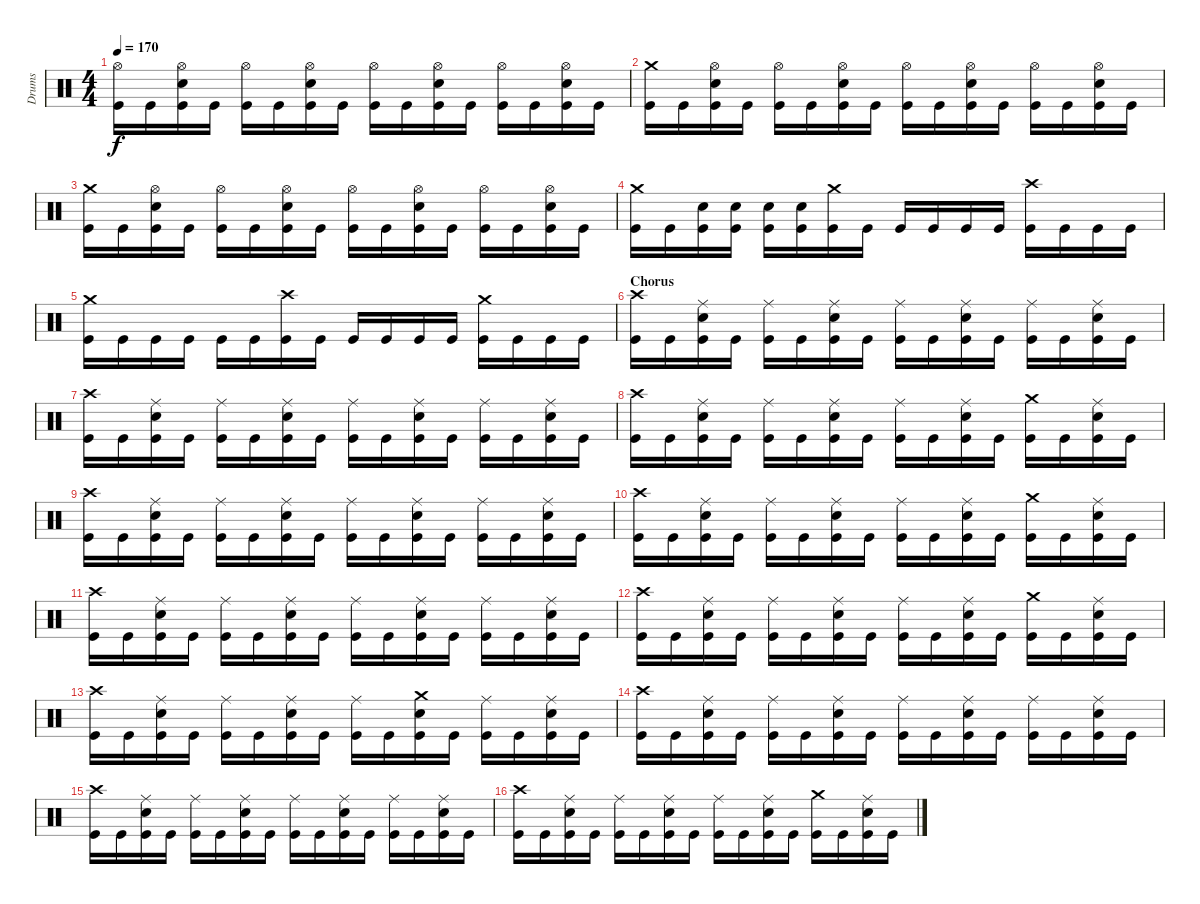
\track ("Drums" "Drums") {instrument percussion}
\staff {score}
\articulation defaults
\ts (4 4)
\tempo 170
\clef neutral
\ks c
("Hi-Hat (open)" "Kick (hit)").16{dy f} "Kick (hit)".16 ("Hi-Hat (open)" "Electric Snare (hit)" "Kick (hit)").16 "Kick (hit)".16 ("Hi-Hat (open)" "Kick (hit)").16 "Kick (hit)".16 ("Hi-Hat (open)" "Electric Snare (hit)" "Kick (hit)").16 "Kick (hit)".16 ("Hi-Hat (open)" "Kick (hit)").16 "Kick (hit)".16 ("Hi-Hat (open)" "Electric Snare (hit)" "Kick (hit)").16 "Kick (hit)".16 ("Hi-Hat (open)" "Kick (hit)").16 "Kick (hit)".16 ("Hi-Hat (open)" "Electric Snare (hit)" "Kick (hit)").16 "Kick (hit)".16 |
("Crash medium (hit)" "Kick (hit)").16 "Kick (hit)".16 ("Hi-Hat (open)" "Electric Snare (hit)" "Kick (hit)").16 "Kick (hit)".16 ("Hi-Hat (open)" "Kick (hit)").16 "Kick (hit)".16 ("Hi-Hat (open)" "Electric Snare (hit)" "Kick (hit)").16 "Kick (hit)".16 ("Hi-Hat (open)" "Kick (hit)").16 "Kick (hit)".16 ("Hi-Hat (open)" "Electric Snare (hit)" "Kick (hit)").16 "Kick (hit)".16 ("Hi-Hat (open)" "Kick (hit)").16 "Kick (hit)".16 ("Hi-Hat (open)" "Electric Snare (hit)" "Kick (hit)").16 "Kick (hit)".16 |
("Crash medium (hit)" "Kick (hit)").16 "Kick (hit)".16 ("Hi-Hat (open)" "Electric Snare (hit)" "Kick (hit)").16 "Kick (hit)".16 ("Hi-Hat (open)" "Kick (hit)").16 "Kick (hit)".16 ("Hi-Hat (open)" "Electric Snare (hit)" "Kick (hit)").16 "Kick (hit)".16 ("Hi-Hat (open)" "Kick (hit)").16 "Kick (hit)".16 ("Hi-Hat (open)" "Electric Snare (hit)" "Kick (hit)").16 "Kick (hit)".16 ("Hi-Hat (open)" "Kick (hit)").16 "Kick (hit)".16 ("Hi-Hat (open)" "Electric Snare (hit)" "Kick (hit)").16 "Kick (hit)".16 |
("Crash medium (hit)" "Kick (hit)").16 "Kick (hit)".16 ("Electric Snare (hit)" "Kick (hit)").16 ("Electric Snare (hit)" "Kick (hit)").16 ("Electric Snare (hit)" "Kick (hit)").16 ("Electric Snare (hit)" "Kick (hit)").16 ("Crash medium (hit)" "Kick (hit)").16 "Kick (hit)".16 "Kick (hit)".16 "Kick (hit)".16 "Kick (hit)".16 "Kick (hit)".16 ("Crash high (hit)" "Kick (hit)").16 "Kick (hit)".16 "Kick (hit)".16 "Kick (hit)".16 |
("Crash medium (hit)" "Kick (hit)").16 "Kick (hit)".16 "Kick (hit)".16 "Kick (hit)".16 "Kick (hit)".16 "Kick (hit)".16 ("Crash high (hit)" "Kick (hit)").16 "Kick (hit)".16 "Kick (hit)".16 "Kick (hit)".16 "Kick (hit)".16 "Kick (hit)".16 ("Crash medium (hit)" "Kick (hit)").16 "Kick (hit)".16 "Kick (hit)".16 "Kick (hit)".16 |
\section ("" "Chorus")
("Crash high (hit)" "Kick (hit)").16 "Kick (hit)".16 ("Ride (middle)" "Electric Snare (hit)" "Kick (hit)").16 "Kick (hit)".16 ("Ride (middle)" "Kick (hit)").16 "Kick (hit)".16 ("Ride (middle)" "Electric Snare (hit)" "Kick (hit)").16 "Kick (hit)".16 ("Ride (middle)" "Kick (hit)").16 "Kick (hit)".16 ("Ride (middle)" "Electric Snare (hit)" "Kick (hit)").16 "Kick (hit)".16 ("Ride (middle)" "Kick (hit)").16 "Kick (hit)".16 ("Ride (middle)" "Electric Snare (hit)" "Kick (hit)").16 "Kick (hit)".16 |
("Crash high (hit)" "Kick (hit)").16 "Kick (hit)".16 ("Ride (middle)" "Electric Snare (hit)" "Kick (hit)").16 "Kick (hit)".16 ("Ride (middle)" "Kick (hit)").16 "Kick (hit)".16 ("Ride (middle)" "Electric Snare (hit)" "Kick (hit)").16 "Kick (hit)".16 ("Ride (middle)" "Kick (hit)").16 "Kick (hit)".16 ("Ride (middle)" "Electric Snare (hit)" "Kick (hit)").16 "Kick (hit)".16 ("Ride (middle)" "Kick (hit)").16 "Kick (hit)".16 ("Ride (middle)" "Electric Snare (hit)" "Kick (hit)").16 "Kick (hit)".16 |
("Crash high (hit)" "Kick (hit)").16 "Kick (hit)".16 ("Ride (middle)" "Electric Snare (hit)" "Kick (hit)").16 "Kick (hit)".16 ("Ride (middle)" "Kick (hit)").16 "Kick (hit)".16 ("Ride (middle)" "Electric Snare (hit)" "Kick (hit)").16 "Kick (hit)".16 ("Ride (middle)" "Kick (hit)").16 "Kick (hit)".16 ("Ride (middle)" "Electric Snare (hit)" "Kick (hit)").16 "Kick (hit)".16 ("Crash medium (hit)" "Kick (hit)").16 "Kick (hit)".16 ("Ride (middle)" "Electric Snare (hit)" "Kick (hit)").16 "Kick (hit)".16 |
("Crash high (hit)" "Kick (hit)").16 "Kick (hit)".16 ("Ride (middle)" "Electric Snare (hit)" "Kick (hit)").16 "Kick (hit)".16 ("Ride (middle)" "Kick (hit)").16 "Kick (hit)".16 ("Ride (middle)" "Electric Snare (hit)" "Kick (hit)").16 "Kick (hit)".16 ("Ride (middle)" "Kick (hit)").16 "Kick (hit)".16 ("Ride (middle)" "Electric Snare (hit)" "Kick (hit)").16 "Kick (hit)".16 ("Ride (middle)" "Kick (hit)").16 "Kick (hit)".16 ("Ride (middle)" "Electric Snare (hit)" "Kick (hit)").16 "Kick (hit)".16 |
("Crash high (hit)" "Kick (hit)").16 "Kick (hit)".16 ("Ride (middle)" "Electric Snare (hit)" "Kick (hit)").16 "Kick (hit)".16 ("Ride (middle)" "Kick (hit)").16 "Kick (hit)".16 ("Ride (middle)" "Electric Snare (hit)" "Kick (hit)").16 "Kick (hit)".16 ("Ride (middle)" "Kick (hit)").16 "Kick (hit)".16 ("Ride (middle)" "Electric Snare (hit)" "Kick (hit)").16 "Kick (hit)".16 ("Crash medium (hit)" "Kick (hit)").16 "Kick (hit)".16 ("Ride (middle)" "Electric Snare (hit)" "Kick (hit)").16 "Kick (hit)".16 |
("Crash high (hit)" "Kick (hit)").16 "Kick (hit)".16 ("Ride (middle)" "Electric Snare (hit)" "Kick (hit)").16 "Kick (hit)".16 ("Ride (middle)" "Kick (hit)").16 "Kick (hit)".16 ("Ride (middle)" "Electric Snare (hit)" "Kick (hit)").16 "Kick (hit)".16 ("Ride (middle)" "Kick (hit)").16 "Kick (hit)".16 ("Ride (middle)" "Electric Snare (hit)" "Kick (hit)").16 "Kick (hit)".16 ("Ride (middle)" "Kick (hit)").16 "Kick (hit)".16 ("Ride (middle)" "Electric Snare (hit)" "Kick (hit)").16 "Kick (hit)".16 |
("Crash high (hit)" "Kick (hit)").16 "Kick (hit)".16 ("Ride (middle)" "Electric Snare (hit)" "Kick (hit)").16 "Kick (hit)".16 ("Ride (middle)" "Kick (hit)").16 "Kick (hit)".16 ("Ride (middle)" "Electric Snare (hit)" "Kick (hit)").16 "Kick (hit)".16 ("Ride (middle)" "Kick (hit)").16 "Kick (hit)".16 ("Ride (middle)" "Electric Snare (hit)" "Kick (hit)").16 "Kick (hit)".16 ("Crash medium (hit)" "Kick (hit)").16 "Kick (hit)".16 ("Ride (middle)" "Electric Snare (hit)" "Kick (hit)").16 "Kick (hit)".16 |
("Crash high (hit)" "Kick (hit)").16 "Kick (hit)".16 ("Ride (middle)" "Electric Snare (hit)" "Kick (hit)").16 "Kick (hit)".16 ("Ride (middle)" "Kick (hit)").16 "Kick (hit)".16 ("Ride (middle)" "Electric Snare (hit)" "Kick (hit)").16 "Kick (hit)".16 ("Ride (middle)" "Kick (hit)").16 "Kick (hit)".16 ("Crash medium (hit)" "Electric Snare (hit)" "Kick (hit)").16 "Kick (hit)".16 ("Ride (middle)" "Kick (hit)").16 "Kick (hit)".16 ("Ride (middle)" "Electric Snare (hit)" "Kick (hit)").16 "Kick (hit)".16 |
("Crash high (hit)" "Kick (hit)").16 "Kick (hit)".16 ("Ride (middle)" "Electric Snare (hit)" "Kick (hit)").16 "Kick (hit)".16 ("Ride (middle)" "Kick (hit)").16 "Kick (hit)".16 ("Ride (middle)" "Electric Snare (hit)" "Kick (hit)").16 "Kick (hit)".16 ("Ride (middle)" "Kick (hit)").16 "Kick (hit)".16 ("Ride (middle)" "Electric Snare (hit)" "Kick (hit)").16 "Kick (hit)".16 ("Ride (middle)" "Kick (hit)").16 "Kick (hit)".16 ("Ride (middle)" "Electric Snare (hit)" "Kick (hit)").16 "Kick (hit)".16 |
("Crash high (hit)" "Kick (hit)").16 "Kick (hit)".16 ("Ride (middle)" "Electric Snare (hit)" "Kick (hit)").16 "Kick (hit)".16 ("Ride (middle)" "Kick (hit)").16 "Kick (hit)".16 ("Ride (middle)" "Electric Snare (hit)" "Kick (hit)").16 "Kick (hit)".16 ("Ride (middle)" "Kick (hit)").16 "Kick (hit)".16 ("Ride (middle)" "Electric Snare (hit)" "Kick (hit)").16 "Kick (hit)".16 ("Ride (middle)" "Kick (hit)").16 "Kick (hit)".16 ("Ride (middle)" "Electric Snare (hit)" "Kick (hit)").16 "Kick (hit)".16 |
("Crash high (hit)" "Kick (hit)").16 "Kick (hit)".16 ("Ride (middle)" "Electric Snare (hit)" "Kick (hit)").16 "Kick (hit)".16 ("Ride (middle)" "Kick (hit)").16 "Kick (hit)".16 ("Ride (middle)" "Electric Snare (hit)" "Kick (hit)").16 "Kick (hit)".16 ("Ride (middle)" "Kick (hit)").16 "Kick (hit)".16 ("Ride (middle)" "Electric Snare (hit)" "Kick (hit)").16 "Kick (hit)".16 ("Crash medium (hit)" "Kick (hit)").16 "Kick (hit)".16 ("Ride (middle)" "Electric Snare (hit)" "Kick (hit)").16 "Kick (hit)".16
